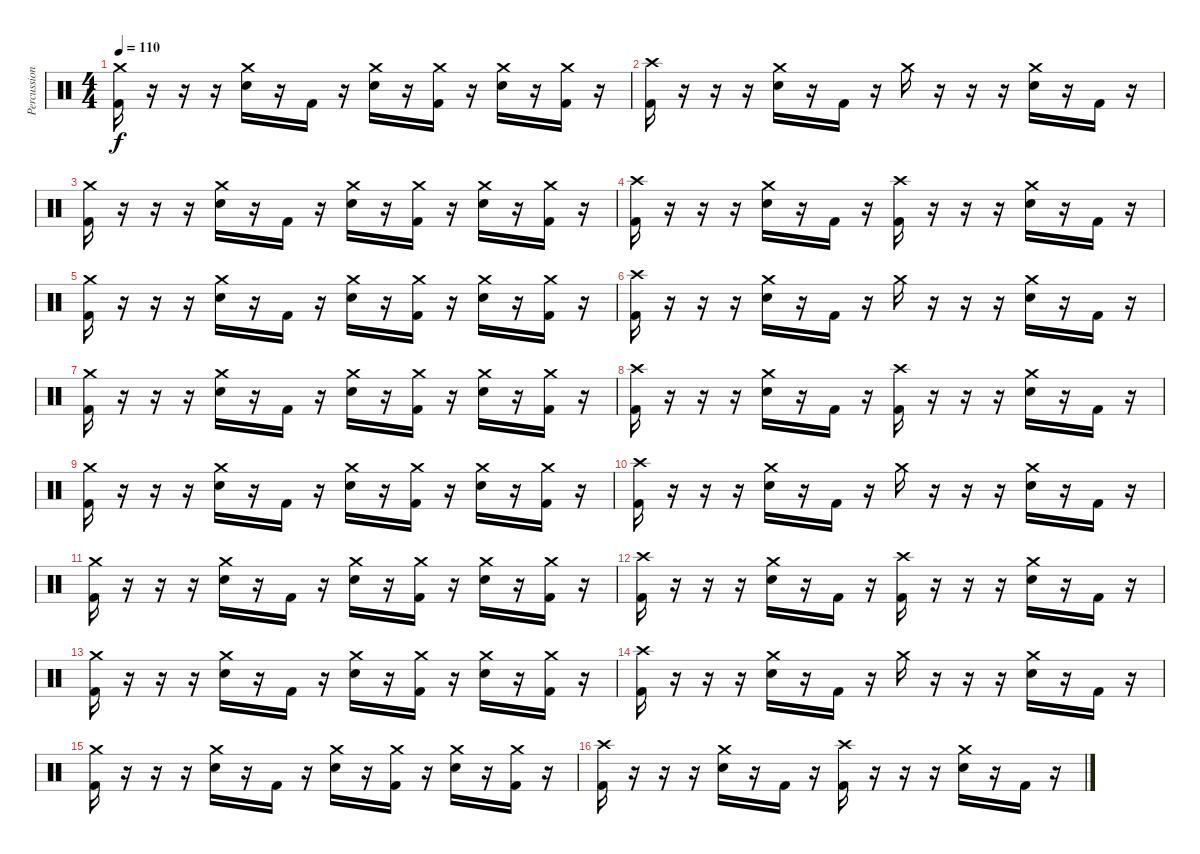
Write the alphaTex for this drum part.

\track ("Percussion" "Percussion") {instrument percussion}
\staff {score}
\articulation defaults
\ts (4 4)
\tempo 110
\clef neutral
\ks c
("Crash medium (hit)" "Kick (hit) 2").16{dy f} r.16 r.16 r.16 ("Crash medium (hit)" "Electric Snare (hit)").16 r.16 "Kick (hit) 2".16 r.16 ("Crash medium (hit)" "Electric Snare (hit)").16 r.16 ("Crash medium (hit)" "Kick (hit) 2").16 r.16 ("Crash medium (hit)" "Electric Snare (hit)").16 r.16 ("Crash medium (hit)" "Kick (hit) 2").16 r.16 |
("Crash high (hit)" "Kick (hit) 2").16 r.16 r.16 r.16 ("Crash medium (hit)" "Electric Snare (hit)").16 r.16 "Kick (hit) 2".16 r.16 "Crash medium (hit)".16 r.16 r.16 r.16 ("Crash medium (hit)" "Electric Snare (hit)").16 r.16 "Kick (hit) 2".16 r.16 |
("Crash medium (hit)" "Kick (hit) 2").16 r.16 r.16 r.16 ("Crash medium (hit)" "Electric Snare (hit)").16 r.16 "Kick (hit) 2".16 r.16 ("Crash medium (hit)" "Electric Snare (hit)").16 r.16 ("Crash medium (hit)" "Kick (hit) 2").16 r.16 ("Crash medium (hit)" "Electric Snare (hit)").16 r.16 ("Crash medium (hit)" "Kick (hit) 2").16 r.16 |
("Crash high (hit)" "Kick (hit) 2").16 r.16 r.16 r.16 ("Crash medium (hit)" "Electric Snare (hit)").16 r.16 "Kick (hit) 2".16 r.16 ("Crash high (hit)" "Kick (hit) 2").16 r.16 r.16 r.16 ("Crash medium (hit)" "Electric Snare (hit)").16 r.16 "Kick (hit) 2".16 r.16 |
("Crash medium (hit)" "Kick (hit) 2").16 r.16 r.16 r.16 ("Crash medium (hit)" "Electric Snare (hit)").16 r.16 "Kick (hit) 2".16 r.16 ("Crash medium (hit)" "Electric Snare (hit)").16 r.16 ("Crash medium (hit)" "Kick (hit) 2").16 r.16 ("Crash medium (hit)" "Electric Snare (hit)").16 r.16 ("Crash medium (hit)" "Kick (hit) 2").16 r.16 |
("Crash high (hit)" "Kick (hit) 2").16 r.16 r.16 r.16 ("Crash medium (hit)" "Electric Snare (hit)").16 r.16 "Kick (hit) 2".16 r.16 "Crash medium (hit)".16 r.16 r.16 r.16 ("Crash medium (hit)" "Electric Snare (hit)").16 r.16 "Kick (hit) 2".16 r.16 |
("Crash medium (hit)" "Kick (hit) 2").16 r.16 r.16 r.16 ("Crash medium (hit)" "Electric Snare (hit)").16 r.16 "Kick (hit) 2".16 r.16 ("Crash medium (hit)" "Electric Snare (hit)").16 r.16 ("Crash medium (hit)" "Kick (hit) 2").16 r.16 ("Crash medium (hit)" "Electric Snare (hit)").16 r.16 ("Crash medium (hit)" "Kick (hit) 2").16 r.16 |
("Crash high (hit)" "Kick (hit) 2").16 r.16 r.16 r.16 ("Crash medium (hit)" "Electric Snare (hit)").16 r.16 "Kick (hit) 2".16 r.16 ("Crash high (hit)" "Kick (hit) 2").16 r.16 r.16 r.16 ("Crash medium (hit)" "Electric Snare (hit)").16 r.16 "Kick (hit) 2".16 r.16 |
("Crash medium (hit)" "Kick (hit) 2").16 r.16 r.16 r.16 ("Crash medium (hit)" "Electric Snare (hit)").16 r.16 "Kick (hit) 2".16 r.16 ("Crash medium (hit)" "Electric Snare (hit)").16 r.16 ("Crash medium (hit)" "Kick (hit) 2").16 r.16 ("Crash medium (hit)" "Electric Snare (hit)").16 r.16 ("Crash medium (hit)" "Kick (hit) 2").16 r.16 |
("Crash high (hit)" "Kick (hit) 2").16 r.16 r.16 r.16 ("Crash medium (hit)" "Electric Snare (hit)").16 r.16 "Kick (hit) 2".16 r.16 "Crash medium (hit)".16 r.16 r.16 r.16 ("Crash medium (hit)" "Electric Snare (hit)").16 r.16 "Kick (hit) 2".16 r.16 |
("Crash medium (hit)" "Kick (hit) 2").16 r.16 r.16 r.16 ("Crash medium (hit)" "Electric Snare (hit)").16 r.16 "Kick (hit) 2".16 r.16 ("Crash medium (hit)" "Electric Snare (hit)").16 r.16 ("Crash medium (hit)" "Kick (hit) 2").16 r.16 ("Crash medium (hit)" "Electric Snare (hit)").16 r.16 ("Crash medium (hit)" "Kick (hit) 2").16 r.16 |
("Crash high (hit)" "Kick (hit) 2").16 r.16 r.16 r.16 ("Crash medium (hit)" "Electric Snare (hit)").16 r.16 "Kick (hit) 2".16 r.16 ("Crash high (hit)" "Kick (hit) 2").16 r.16 r.16 r.16 ("Crash medium (hit)" "Electric Snare (hit)").16 r.16 "Kick (hit) 2".16 r.16 |
("Crash medium (hit)" "Kick (hit) 2").16 r.16 r.16 r.16 ("Crash medium (hit)" "Electric Snare (hit)").16 r.16 "Kick (hit) 2".16 r.16 ("Crash medium (hit)" "Electric Snare (hit)").16 r.16 ("Crash medium (hit)" "Kick (hit) 2").16 r.16 ("Crash medium (hit)" "Electric Snare (hit)").16 r.16 ("Crash medium (hit)" "Kick (hit) 2").16 r.16 |
("Crash high (hit)" "Kick (hit) 2").16 r.16 r.16 r.16 ("Crash medium (hit)" "Electric Snare (hit)").16 r.16 "Kick (hit) 2".16 r.16 "Crash medium (hit)".16 r.16 r.16 r.16 ("Crash medium (hit)" "Electric Snare (hit)").16 r.16 "Kick (hit) 2".16 r.16 |
("Crash medium (hit)" "Kick (hit) 2").16 r.16 r.16 r.16 ("Crash medium (hit)" "Electric Snare (hit)").16 r.16 "Kick (hit) 2".16 r.16 ("Crash medium (hit)" "Electric Snare (hit)").16 r.16 ("Crash medium (hit)" "Kick (hit) 2").16 r.16 ("Crash medium (hit)" "Electric Snare (hit)").16 r.16 ("Crash medium (hit)" "Kick (hit) 2").16 r.16 |
("Crash high (hit)" "Kick (hit) 2").16 r.16 r.16 r.16 ("Crash medium (hit)" "Electric Snare (hit)").16 r.16 "Kick (hit) 2".16 r.16 ("Crash high (hit)" "Kick (hit) 2").16 r.16 r.16 r.16 ("Crash medium (hit)" "Electric Snare (hit)").16 r.16 "Kick (hit) 2".16 r.16
